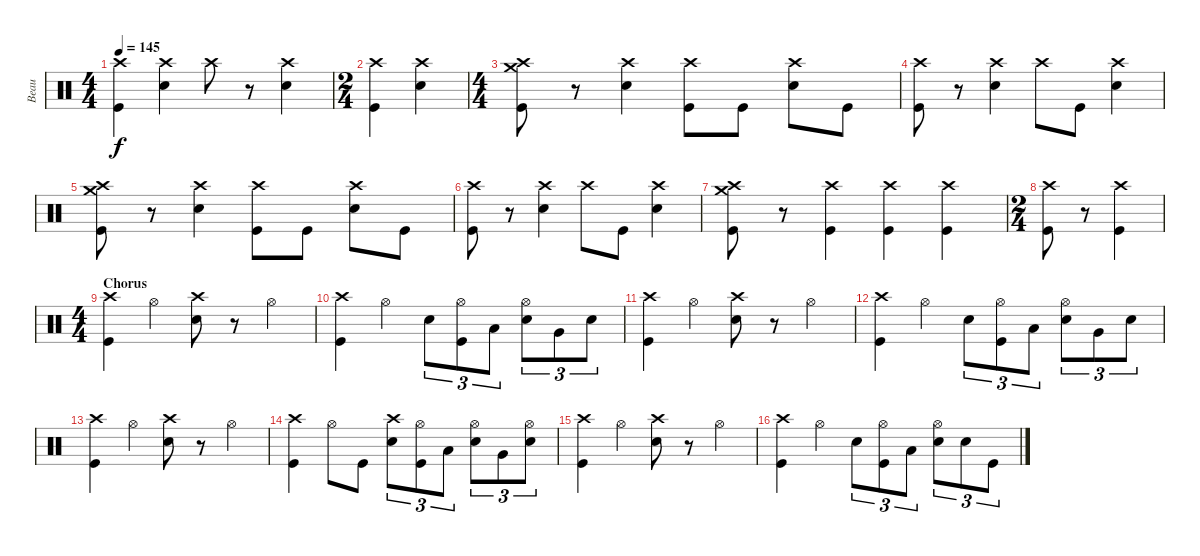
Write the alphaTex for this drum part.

\track ("Beau" "Beau") {instrument percussion}
\staff {score}
\articulation defaults
\ts (4 4)
\tempo 145
\clef neutral
\ks c
("Kick (hit)" "Crash high (hit)").4{dy f} ("Snare (hit) 2" "Crash high (hit)").4 "Crash high (hit)".8 r.8 ("Snare (hit) 2" "Crash high (hit)").4 |
\ts (2 4)
("Kick (hit)" "Crash high (hit)").4 ("Snare (hit) 2" "Crash high (hit)").4 |
\ts (4 4)
("Kick (hit)" "Crash medium (hit)" "Crash high (hit)").8 r.8 ("Snare (hit) 2" "Crash high (hit)").4 ("Kick (hit)" "Crash high (hit)").8 "Kick (hit)".8 ("Snare (hit) 2" "Crash high (hit)").8 "Kick (hit)".8 |
("Kick (hit)" "Crash high (hit)").8 r.8 ("Snare (hit) 2" "Crash high (hit)").4 "Crash high (hit)".8 "Kick (hit)".8 ("Snare (hit) 2" "Crash high (hit)").4 |
("Kick (hit)" "Crash medium (hit)" "Crash high (hit)").8 r.8 ("Snare (hit) 2" "Crash high (hit)").4 ("Kick (hit)" "Crash high (hit)").8 "Kick (hit)".8 ("Snare (hit) 2" "Crash high (hit)").8 "Kick (hit)".8 |
("Kick (hit)" "Crash high (hit)").8 r.8 ("Snare (hit) 2" "Crash high (hit)").4 "Crash high (hit)".8 "Kick (hit)".8 ("Snare (hit) 2" "Crash high (hit)").4 |
("Kick (hit)" "Crash medium (hit)" "Crash high (hit)").8 r.8 ("Kick (hit)" "Crash high (hit)").4 ("Kick (hit)" "Crash high (hit)").4 ("Kick (hit)" "Crash high (hit)").4 |
\ts (2 4)
("Kick (hit)" "Crash high (hit)").8 r.8 ("Kick (hit)" "Crash high (hit)").4 |
\ts (4 4)
\section ("" "Chorus")
("Kick (hit)" "Crash high (hit)").4 "Hi-Hat (open)".4 ("Snare (hit) 2" "Crash high (hit)").8 r.8 "Hi-Hat (open)".4 |
("Kick (hit)" "Crash high (hit)").4 "Hi-Hat (open)".4 "Snare (hit) 2".8{tu (3 2)} ("Kick (hit)" "Hi-Hat (open)").8{tu (3 2)} "Low Tom (hit)".8{tu (3 2)} ("Snare (hit) 2" "Hi-Hat (open)").8{tu (3 2)} "Very Low Tom (hit)".8{tu (3 2)} "Snare (hit) 2".8{tu (3 2)} |
("Kick (hit)" "Crash high (hit)").4 "Hi-Hat (open)".4 ("Snare (hit) 2" "Crash high (hit)").8 r.8 "Hi-Hat (open)".4 |
("Kick (hit)" "Crash high (hit)").4 "Hi-Hat (open)".4 "Snare (hit) 2".8{tu (3 2)} ("Kick (hit)" "Hi-Hat (open)").8{tu (3 2)} "Low Tom (hit)".8{tu (3 2)} ("Snare (hit) 2" "Hi-Hat (open)").8{tu (3 2)} "Very Low Tom (hit)".8{tu (3 2)} "Snare (hit) 2".8{tu (3 2)} |
("Kick (hit)" "Crash high (hit)").4 "Hi-Hat (open)".4 ("Snare (hit) 2" "Crash high (hit)").8 r.8 "Hi-Hat (open)".4 |
("Kick (hit)" "Crash high (hit)").4 "Hi-Hat (open)".8 "Kick (hit)".8 ("Snare (hit) 2" "Crash high (hit)").8{tu (3 2)} ("Kick (hit)" "Hi-Hat (open)").8{tu (3 2)} "Low Tom (hit)".8{tu (3 2)} ("Snare (hit) 2" "Hi-Hat (open)").8{tu (3 2)} "Very Low Tom (hit)".8{tu (3 2)} ("Snare (hit) 2" "Hi-Hat (open)").8{tu (3 2)} |
("Kick (hit)" "Crash high (hit)").4 "Hi-Hat (open)".4 ("Snare (hit) 2" "Crash high (hit)").8 r.8 "Hi-Hat (open)".4 |
("Kick (hit)" "Crash high (hit)").4 "Hi-Hat (open)".4 "Snare (hit) 2".8{tu (3 2)} ("Kick (hit)" "Hi-Hat (open)").8{tu (3 2)} "Low Tom (hit)".8{tu (3 2)} ("Snare (hit) 2" "Hi-Hat (open)").8{tu (3 2)} "Snare (hit) 2".8{tu (3 2)} "Kick (hit)".8{tu (3 2)}
